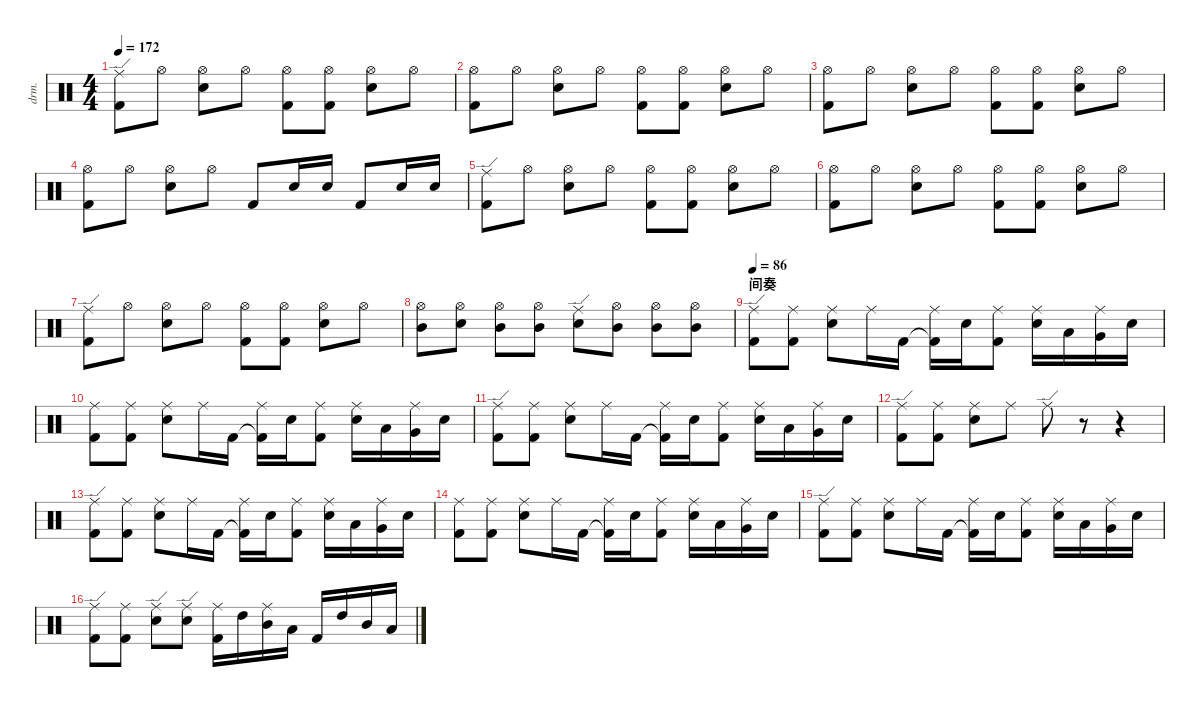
\defaultSystemsLayout 4
\hideDynamics
\bracketExtendMode nobrackets
\track ("Drums" "drm.") {solo instrument percussion}
\staff {score}
\articulation defaults
\ts (4 4)
\tempo 172
\clef neutral
\ks c
("Kick (hit) 2" "Ride (edge)").8{dy ff beam Down} "Hi-Hat (open)".8{dy mf beam Down} ("Snare (hit) 2" "Hi-Hat (open)").8{beam Down} "Hi-Hat (open)".8{beam Down} ("Kick (hit) 2" "Hi-Hat (open)").8{beam Down} ("Kick (hit) 2" "Hi-Hat (open)").8{beam Down} ("Snare (hit) 2" "Hi-Hat (open)").8{beam Down} "Hi-Hat (open)".8{beam Down} |
("Kick (hit) 2" "Hi-Hat (open)").8{beam Down} "Hi-Hat (open)".8{beam Down} ("Snare (hit) 2" "Hi-Hat (open)").8{beam Down} "Hi-Hat (open)".8{beam Down} ("Kick (hit) 2" "Hi-Hat (open)").8{beam Down} ("Kick (hit) 2" "Hi-Hat (open)").8{beam Down} ("Snare (hit) 2" "Hi-Hat (open)").8{beam Down} "Hi-Hat (open)".8{beam Down} |
("Kick (hit) 2" "Hi-Hat (open)").8{beam Down} "Hi-Hat (open)".8{beam Down} ("Snare (hit) 2" "Hi-Hat (open)").8{beam Down} "Hi-Hat (open)".8{beam Down} ("Kick (hit) 2" "Hi-Hat (open)").8{beam Down} ("Kick (hit) 2" "Hi-Hat (open)").8{beam Down} ("Snare (hit) 2" "Hi-Hat (open)").8{beam Down} "Hi-Hat (open)".8{beam Down} |
("Kick (hit) 2" "Hi-Hat (open)").8{beam Down} "Hi-Hat (open)".8{beam Down} ("Snare (hit) 2" "Hi-Hat (open)").8{beam Down} "Hi-Hat (open)".8{beam Down} "Kick (hit) 2".8{beam Up} "Snare (hit) 2".16{beam Up} "Snare (hit) 2".16{beam Up} "Kick (hit) 2".8{beam Up} "Snare (hit) 2".16{beam Up} "Snare (hit) 2".16{beam Up} |
("Kick (hit) 2" "Ride (edge)").8{dy ff beam Down} "Hi-Hat (open)".8{dy mf beam Down} ("Snare (hit) 2" "Hi-Hat (open)").8{beam Down} "Hi-Hat (open)".8{beam Down} ("Kick (hit) 2" "Hi-Hat (open)").8{beam Down} ("Kick (hit) 2" "Hi-Hat (open)").8{beam Down} ("Snare (hit) 2" "Hi-Hat (open)").8{beam Down} "Hi-Hat (open)".8{beam Down} |
("Kick (hit) 2" "Hi-Hat (open)").8{beam Down} "Hi-Hat (open)".8{beam Down} ("Snare (hit) 2" "Hi-Hat (open)").8{beam Down} "Hi-Hat (open)".8{beam Down} ("Kick (hit) 2" "Hi-Hat (open)").8{beam Down} ("Kick (hit) 2" "Hi-Hat (open)").8{beam Down} ("Snare (hit) 2" "Hi-Hat (open)").8{beam Down} "Hi-Hat (open)".8{beam Down} |
("Kick (hit) 2" "Ride (edge)").8{dy ff beam Down} "Hi-Hat (open)".8{dy mf beam Down} ("Snare (hit) 2" "Hi-Hat (open)").8{beam Down} "Hi-Hat (open)".8{beam Down} ("Kick (hit) 2" "Hi-Hat (open)").8{beam Down} ("Kick (hit) 2" "Hi-Hat (open)").8{beam Down} ("Snare (hit) 2" "Hi-Hat (open)").8{beam Down} "Hi-Hat (open)".8{beam Down} |
("Hi-Hat (open)" "Mid Tom (hit)").8{beam Down} ("Hi-Hat (open)" "Snare (hit) 2").8{beam Down} ("Hi-Hat (open)" "Mid Tom (hit)").8{beam Down} ("Hi-Hat (open)" "Mid Tom (hit)").8{beam Down} ("Snare (hit) 2" "Ride (edge)").8{dy ff beam Down} ("Mid Tom (hit)" "Hi-Hat (open)").8{beam Down} ("Hi-Hat (open)" "Mid Tom (hit)").8{dy mf beam Down} ("Mid Tom (hit)" "Hi-Hat (open)").8{dy ff beam Down} |
\section ("" "间奏")
\tempo 86
("Ride (edge)" "Kick (hit) 2").8{beam Down} ("Kick (hit) 2" "Ride (middle)").8{dy mf beam Down} ("Snare (hit) 2" "Ride (middle)").8{beam Down} "Ride (middle)".16{beam Down} "Kick (hit) 2".16{beam Down} ("Kick (hit) 2"{t} "Ride (middle)").16{beam Down} "Snare (hit) 2".16{beam Down} ("Kick (hit) 2" "Ride (middle)").8{beam Down} ("Ride (middle)" "Snare (hit) 2").16{beam Down} "Low Tom (hit)".16{beam Down} ("Ride (middle)" "Very Low Tom (hit)").16{beam Down} "Snare (hit) 2".16{beam Down} |
("Ride (middle)" "Kick (hit) 2").8{beam Down} ("Kick (hit) 2" "Ride (middle)").8{beam Down} ("Snare (hit) 2" "Ride (middle)").8{beam Down} "Ride (middle)".16{beam Down} "Kick (hit) 2".16{beam Down} ("Kick (hit) 2"{t} "Ride (middle)").16{beam Down} "Snare (hit) 2".16{beam Down} ("Kick (hit) 2" "Ride (middle)").8{beam Down} ("Ride (middle)" "Snare (hit) 2").16{beam Down} "Low Tom (hit)".16{beam Down} ("Ride (middle)" "Very Low Tom (hit)").16{beam Down} "Snare (hit) 2".16{beam Down} |
("Ride (edge)" "Kick (hit) 2").8{dy ff beam Down} ("Kick (hit) 2" "Ride (middle)").8{dy mf beam Down} ("Snare (hit) 2" "Ride (middle)").8{beam Down} "Ride (middle)".16{beam Down} "Kick (hit) 2".16{beam Down} ("Kick (hit) 2"{t} "Ride (middle)").16{beam Down} "Snare (hit) 2".16{beam Down} ("Kick (hit) 2" "Ride (middle)").8{beam Down} ("Ride (middle)" "Snare (hit) 2").16{beam Down} "Low Tom (hit)".16{beam Down} ("Ride (middle)" "Very Low Tom (hit)").16{beam Down} "Snare (hit) 2".16{beam Down} |
("Ride (edge)" "Kick (hit) 2").8{dy ff beam Down} ("Kick (hit) 2" "Ride (middle)").8{dy mf beam Down} ("Snare (hit) 2" "Ride (middle)").8{beam Down} "Ride (middle)".8{beam Down} "Ride (edge)".8{dy ff beam Down} r.8{beam Down} r.4{beam Down} |
("Ride (edge)" "Kick (hit) 2").8{beam Down} ("Kick (hit) 2" "Ride (middle)").8{dy mf beam Down} ("Snare (hit) 2" "Ride (middle)").8{beam Down} "Ride (middle)".16{beam Down} "Kick (hit) 2".16{beam Down} ("Kick (hit) 2"{t} "Ride (middle)").16{beam Down} "Snare (hit) 2".16{beam Down} ("Kick (hit) 2" "Ride (middle)").8{beam Down} ("Ride (middle)" "Snare (hit) 2").16{beam Down} "Low Tom (hit)".16{beam Down} ("Ride (middle)" "Very Low Tom (hit)").16{beam Down} "Snare (hit) 2".16{beam Down} |
("Ride (middle)" "Kick (hit) 2").8{beam Down} ("Kick (hit) 2" "Ride (middle)").8{beam Down} ("Snare (hit) 2" "Ride (middle)").8{beam Down} "Ride (middle)".16{beam Down} "Kick (hit) 2".16{beam Down} ("Kick (hit) 2"{t} "Ride (middle)").16{beam Down} "Snare (hit) 2".16{beam Down} ("Kick (hit) 2" "Ride (middle)").8{beam Down} ("Ride (middle)" "Snare (hit) 2").16{beam Down} "Low Tom (hit)".16{beam Down} ("Ride (middle)" "Very Low Tom (hit)").16{beam Down} "Snare (hit) 2".16{beam Down} |
("Ride (edge)" "Kick (hit) 2").8{dy ff beam Down} ("Kick (hit) 2" "Ride (middle)").8{dy mf beam Down} ("Snare (hit) 2" "Ride (middle)").8{beam Down} "Ride (middle)".16{beam Down} "Kick (hit) 2".16{beam Down} ("Kick (hit) 2"{t} "Ride (middle)").16{beam Down} "Snare (hit) 2".16{beam Down} ("Kick (hit) 2" "Ride (middle)").8{beam Down} ("Ride (middle)" "Snare (hit) 2").16{beam Down} "Low Tom (hit)".16{beam Down} ("Ride (middle)" "Very Low Tom (hit)").16{beam Down} "Snare (hit) 2".16{beam Down} |
("Ride (edge)" "Kick (hit) 2").8{dy ff beam Down} ("Kick (hit) 2" "Ride (middle)").8{dy mf beam Down} ("Snare (hit) 2" "Ride (edge)").8{dy ff beam Down} ("Ride (edge)" "Snare (hit) 2").8{beam Down} ("Kick (hit) 2" "Ride (middle)").16{beam Down} "High Tom (hit)".16{beam Down} ("Mid Tom (hit)" "Ride (middle)").16{dy mf beam Down} "Low Tom (hit)".16{beam Down} "Kick (hit) 2".16{dy ff beam Up} "High Tom (hit)".16{beam Up} "Mid Tom (hit)".16{dy mf beam Up} "Low Tom (hit)".16{beam Up}
